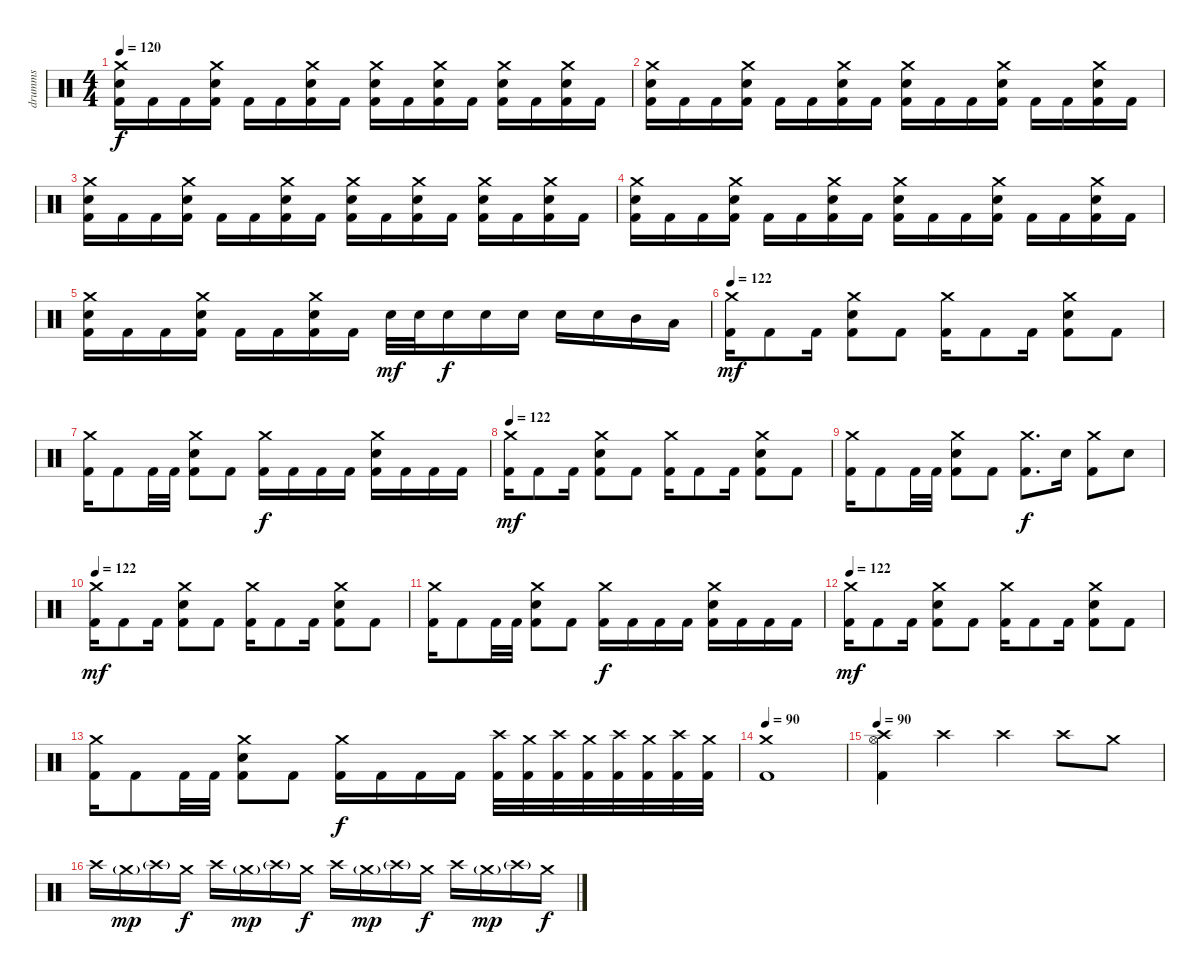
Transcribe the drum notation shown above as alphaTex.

\track ("drumms" "drumms") {instrument percussion}
\staff {score}
\articulation defaults
\ts (4 4)
\tempo 120
\clef neutral
\ks c
("Crash medium (hit)" "Electric Snare (hit)" "Kick (hit) 2").16{dy f} "Kick (hit) 2".16 "Kick (hit) 2".16 ("Crash medium (hit)" "Electric Snare (hit)" "Kick (hit) 2").16 "Kick (hit) 2".16 "Kick (hit) 2".16 ("Crash medium (hit)" "Electric Snare (hit)" "Kick (hit) 2").16 "Kick (hit) 2".16 ("Crash medium (hit)" "Electric Snare (hit)" "Kick (hit) 2").16 "Kick (hit) 2".16 ("Crash medium (hit)" "Electric Snare (hit)" "Kick (hit) 2").16 "Kick (hit) 2".16 ("Crash medium (hit)" "Electric Snare (hit)" "Kick (hit) 2").16 "Kick (hit) 2".16 ("Crash medium (hit)" "Electric Snare (hit)" "Kick (hit) 2").16 "Kick (hit) 2".16 |
("Crash medium (hit)" "Electric Snare (hit)" "Kick (hit) 2").16 "Kick (hit) 2".16 "Kick (hit) 2".16 ("Crash medium (hit)" "Electric Snare (hit)" "Kick (hit) 2").16 "Kick (hit) 2".16 "Kick (hit) 2".16 ("Crash medium (hit)" "Electric Snare (hit)" "Kick (hit) 2").16 "Kick (hit) 2".16 ("Crash medium (hit)" "Electric Snare (hit)" "Kick (hit) 2").16 "Kick (hit) 2".16 "Kick (hit) 2".16 ("Crash medium (hit)" "Electric Snare (hit)" "Kick (hit) 2").16 "Kick (hit) 2".16 "Kick (hit) 2".16 ("Crash medium (hit)" "Electric Snare (hit)" "Kick (hit) 2").16 "Kick (hit) 2".16 |
("Crash medium (hit)" "Electric Snare (hit)" "Kick (hit) 2").16 "Kick (hit) 2".16 "Kick (hit) 2".16 ("Crash medium (hit)" "Electric Snare (hit)" "Kick (hit) 2").16 "Kick (hit) 2".16 "Kick (hit) 2".16 ("Crash medium (hit)" "Electric Snare (hit)" "Kick (hit) 2").16 "Kick (hit) 2".16 ("Crash medium (hit)" "Electric Snare (hit)" "Kick (hit) 2").16 "Kick (hit) 2".16 ("Crash medium (hit)" "Electric Snare (hit)" "Kick (hit) 2").16 "Kick (hit) 2".16 ("Crash medium (hit)" "Electric Snare (hit)" "Kick (hit) 2").16 "Kick (hit) 2".16 ("Crash medium (hit)" "Electric Snare (hit)" "Kick (hit) 2").16 "Kick (hit) 2".16 |
("Crash medium (hit)" "Electric Snare (hit)" "Kick (hit) 2").16 "Kick (hit) 2".16 "Kick (hit) 2".16 ("Crash medium (hit)" "Electric Snare (hit)" "Kick (hit) 2").16 "Kick (hit) 2".16 "Kick (hit) 2".16 ("Crash medium (hit)" "Electric Snare (hit)" "Kick (hit) 2").16 "Kick (hit) 2".16 ("Crash medium (hit)" "Electric Snare (hit)" "Kick (hit) 2").16 "Kick (hit) 2".16 "Kick (hit) 2".16 ("Crash medium (hit)" "Electric Snare (hit)" "Kick (hit) 2").16 "Kick (hit) 2".16 "Kick (hit) 2".16 ("Crash medium (hit)" "Electric Snare (hit)" "Kick (hit) 2").16 "Kick (hit) 2".16 |
("Crash medium (hit)" "Electric Snare (hit)" "Kick (hit) 2").16 "Kick (hit) 2".16 "Kick (hit) 2".16 ("Crash medium (hit)" "Electric Snare (hit)" "Kick (hit) 2").16 "Kick (hit) 2".16 "Kick (hit) 2".16 ("Crash medium (hit)" "Electric Snare (hit)" "Kick (hit) 2").16 "Kick (hit) 2".16 "Electric Snare (hit)".32{dy mf} "Electric Snare (hit)".32 "Electric Snare (hit)".16{dy f} "Electric Snare (hit)".16 "Electric Snare (hit)".16 "Electric Snare (hit)".16 "Electric Snare (hit)".16 "Mid Tom (hit)".16 "Low Tom (hit)".16 |
\tempo 122
("Crash medium (hit)" "Kick (hit) 2").16{dy mf} "Kick (hit) 2".8 "Kick (hit) 2".16 ("Crash medium (hit)" "Electric Snare (hit)" "Kick (hit) 2").8 "Kick (hit) 2".8 ("Crash medium (hit)" "Kick (hit) 2").16 "Kick (hit) 2".8 "Kick (hit) 2".16 ("Crash medium (hit)" "Electric Snare (hit)" "Kick (hit) 2").8 "Kick (hit) 2".8 |
("Crash medium (hit)" "Kick (hit) 2").16 "Kick (hit) 2".8 "Kick (hit) 2".32 "Kick (hit) 2".32 ("Crash medium (hit)" "Electric Snare (hit)" "Kick (hit) 2").8 "Kick (hit) 2".8 ("Crash medium (hit)" "Kick (hit) 2").16{dy f} "Kick (hit) 2".16 "Kick (hit) 2".16 "Kick (hit) 2".16 ("Crash medium (hit)" "Electric Snare (hit)" "Kick (hit) 2").16 "Kick (hit) 2".16 "Kick (hit) 2".16 "Kick (hit) 2".16 |
\tempo 122
("Crash medium (hit)" "Kick (hit) 2").16{dy mf} "Kick (hit) 2".8 "Kick (hit) 2".16 ("Crash medium (hit)" "Electric Snare (hit)" "Kick (hit) 2").8 "Kick (hit) 2".8 ("Crash medium (hit)" "Kick (hit) 2").16 "Kick (hit) 2".8 "Kick (hit) 2".16 ("Crash medium (hit)" "Electric Snare (hit)" "Kick (hit) 2").8 "Kick (hit) 2".8 |
("Crash medium (hit)" "Kick (hit) 2").16 "Kick (hit) 2".8 "Kick (hit) 2".32 "Kick (hit) 2".32 ("Crash medium (hit)" "Electric Snare (hit)" "Kick (hit) 2").8 "Kick (hit) 2".8 ("Crash medium (hit)" "Kick (hit) 2").8{d dy f} "Electric Snare (hit)".16 ("Crash medium (hit)" "Kick (hit) 2").8 "Electric Snare (hit)".8 |
\tempo 122
("Crash medium (hit)" "Kick (hit) 2").16{dy mf} "Kick (hit) 2".8 "Kick (hit) 2".16 ("Crash medium (hit)" "Electric Snare (hit)" "Kick (hit) 2").8 "Kick (hit) 2".8 ("Crash medium (hit)" "Kick (hit) 2").16 "Kick (hit) 2".8 "Kick (hit) 2".16 ("Crash medium (hit)" "Electric Snare (hit)" "Kick (hit) 2").8 "Kick (hit) 2".8 |
("Crash medium (hit)" "Kick (hit) 2").16 "Kick (hit) 2".8 "Kick (hit) 2".32 "Kick (hit) 2".32 ("Crash medium (hit)" "Electric Snare (hit)" "Kick (hit) 2").8 "Kick (hit) 2".8 ("Crash medium (hit)" "Kick (hit) 2").16{dy f} "Kick (hit) 2".16 "Kick (hit) 2".16 "Kick (hit) 2".16 ("Crash medium (hit)" "Electric Snare (hit)" "Kick (hit) 2").16 "Kick (hit) 2".16 "Kick (hit) 2".16 "Kick (hit) 2".16 |
\tempo 122
("Crash medium (hit)" "Kick (hit) 2").16{dy mf} "Kick (hit) 2".8 "Kick (hit) 2".16 ("Crash medium (hit)" "Electric Snare (hit)" "Kick (hit) 2").8 "Kick (hit) 2".8 ("Crash medium (hit)" "Kick (hit) 2").16 "Kick (hit) 2".8 "Kick (hit) 2".16 ("Crash medium (hit)" "Electric Snare (hit)" "Kick (hit) 2").8 "Kick (hit) 2".8 |
("Crash medium (hit)" "Kick (hit) 2").16 "Kick (hit) 2".8 "Kick (hit) 2".32 "Kick (hit) 2".32 ("Crash medium (hit)" "Electric Snare (hit)" "Kick (hit) 2").8 "Kick (hit) 2".8 ("Crash medium (hit)" "Kick (hit) 2").16{dy f} "Kick (hit) 2".16 "Kick (hit) 2".16 "Kick (hit) 2".16 ("Crash high (hit)" "Kick (hit) 2").32 ("Crash medium (hit)" "Kick (hit) 2").32 ("Crash high (hit)" "Kick (hit) 2").32 ("Crash medium (hit)" "Kick (hit) 2").32 ("Crash high (hit)" "Kick (hit) 2").32 ("Crash medium (hit)" "Kick (hit) 2").32 ("Crash high (hit)" "Kick (hit) 2").32 ("Crash medium (hit)" "Kick (hit) 2").32 |
\tempo 90
("Crash medium (hit)" "Kick (hit) 2").1 |
\tempo 90
("Crash high (hit)" "Hi-Hat (open)" "Kick (hit) 2").4 "Crash high (hit)".4 "Crash high (hit)".4 "Crash high (hit)".8 "Crash medium (hit)".8 |
"Crash high (hit)".16 "Crash medium (hit)"{g}.16{dy mp} "Crash high (hit)"{g}.16 "Crash medium (hit)".16{dy f} "Crash high (hit)".16 "Crash medium (hit)"{g}.16{dy mp} "Crash high (hit)"{g}.16 "Crash medium (hit)".16{dy f} "Crash high (hit)".16 "Crash medium (hit)"{g}.16{dy mp} "Crash high (hit)"{g}.16 "Crash medium (hit)".16{dy f} "Crash high (hit)".16 "Crash medium (hit)"{g}.16{dy mp} "Crash high (hit)"{g}.16 "Crash medium (hit)".16{dy f}
